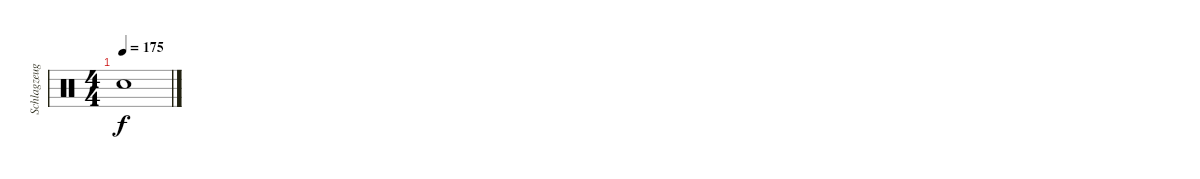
\track ("Schlagzeug" "Schlagzeug") {instrument percussion}
\staff {score}
\articulation defaults
\ts (4 4)
\tempo 175
\clef neutral
\ks c "Snare (hit)"{t}.1{dy f}
